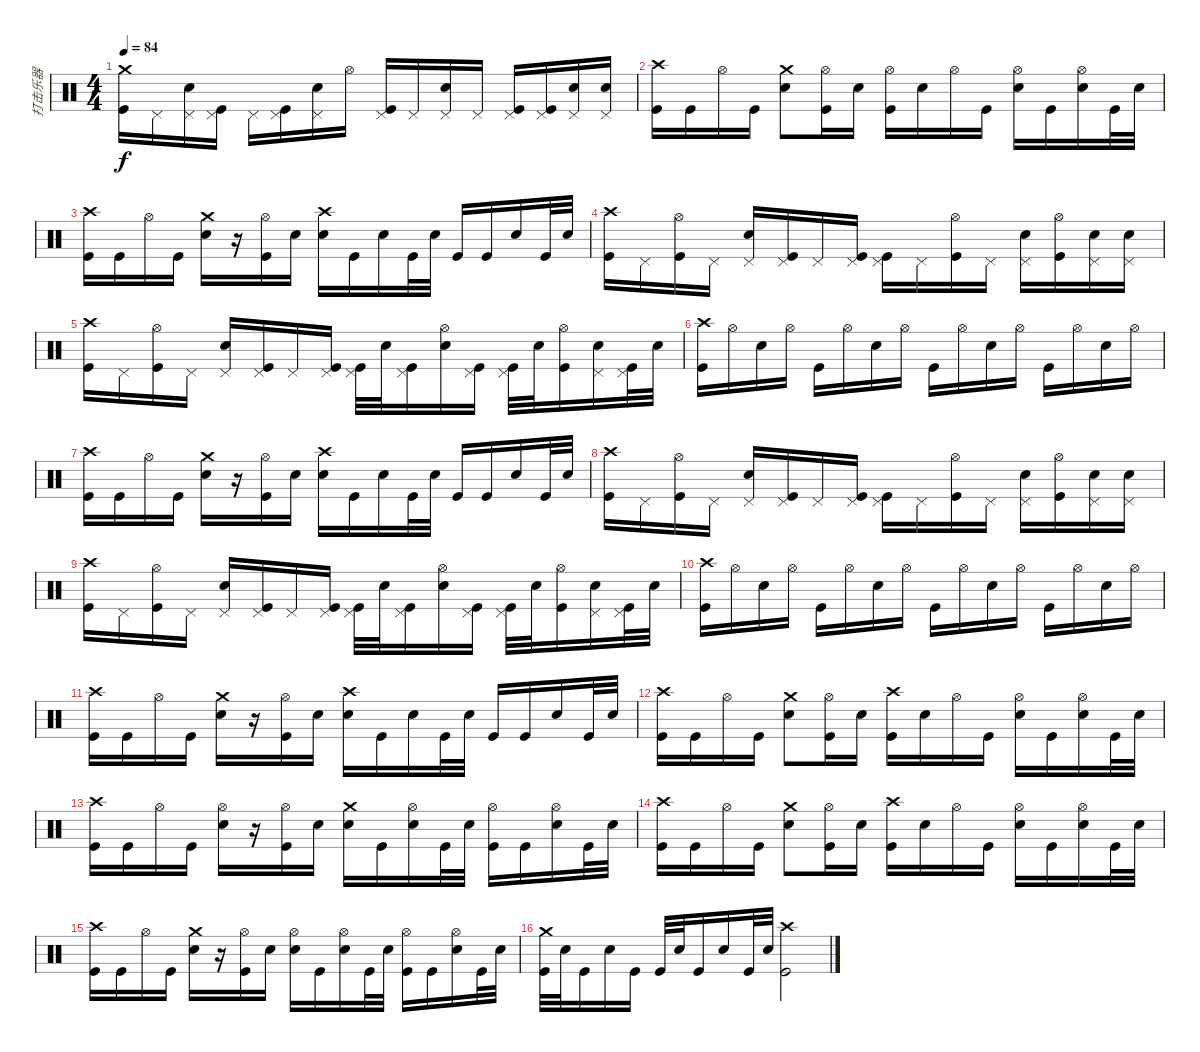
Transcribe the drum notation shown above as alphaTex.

\track ("打击乐器" "打击乐器") {instrument percussion}
\staff {score}
\articulation defaults
\ts (4 4)
\tempo 84
\clef neutral
\ks c
("Crash medium (hit)" "Kick (hit)").16{dy f} "Pedal Hi-Hat (hit)".16 ("Pedal Hi-Hat (hit)" "Electric Snare (hit)").16 ("Pedal Hi-Hat (hit)" "Kick (hit)").16 "Pedal Hi-Hat (hit)".16 ("Pedal Hi-Hat (hit)" "Kick (hit)").16 ("Pedal Hi-Hat (hit)" "Electric Snare (hit)").16 "Hi-Hat (open)".16 ("Pedal Hi-Hat (hit)" "Kick (hit)").16 "Pedal Hi-Hat (hit)".16 ("Pedal Hi-Hat (hit)" "Electric Snare (hit)").16 "Pedal Hi-Hat (hit)".16 ("Pedal Hi-Hat (hit)" "Kick (hit)").16 ("Pedal Hi-Hat (hit)" "Kick (hit)").16 ("Pedal Hi-Hat (hit)" "Electric Snare (hit)").16 ("Pedal Hi-Hat (hit)" "Electric Snare (hit)").16 |
("Crash high (hit)" "Kick (hit)").16 "Kick (hit)".16 "Hi-Hat (open)".16 "Kick (hit)".16 ("Crash medium (hit)" "Electric Snare (hit)").8 ("Hi-Hat (open)" "Kick (hit)").16 "Electric Snare (hit)".16 ("Hi-Hat (open)" "Kick (hit)").16 "Electric Snare (hit)".16 "Hi-Hat (open)".16 "Kick (hit)".16 ("Hi-Hat (open)" "Electric Snare (hit)").16 "Kick (hit)".16 ("Hi-Hat (open)" "Electric Snare (hit)").16 "Kick (hit)".32 "Electric Snare (hit)".32 |
("Crash high (hit)" "Kick (hit)").16 "Kick (hit)".16 "Hi-Hat (open)".16 "Kick (hit)".16 ("Crash medium (hit)" "Electric Snare (hit)").16 r.16 ("Hi-Hat (open)" "Kick (hit)").16 "Electric Snare (hit)".16 ("Crash high (hit)" "Electric Snare (hit)").16 "Kick (hit)".16 "Electric Snare (hit)".16 "Kick (hit)".32 "Electric Snare (hit)".32 "Kick (hit)".16 "Kick (hit)".16 "Electric Snare (hit)".16 "Kick (hit)".32 "Electric Snare (hit)".32 |
("Crash high (hit)" "Kick (hit)").16 "Pedal Hi-Hat (hit)".16 ("Hi-Hat (open)" "Kick (hit)").16 "Pedal Hi-Hat (hit)".16 ("Pedal Hi-Hat (hit)" "Electric Snare (hit)").16 ("Pedal Hi-Hat (hit)" "Kick (hit)").16 "Pedal Hi-Hat (hit)".16 ("Pedal Hi-Hat (hit)" "Kick (hit)").16 ("Pedal Hi-Hat (hit)" "Kick (hit)").16 "Pedal Hi-Hat (hit)".16 ("Hi-Hat (open)" "Kick (hit)").16 "Pedal Hi-Hat (hit)".16 ("Pedal Hi-Hat (hit)" "Electric Snare (hit)").16 ("Hi-Hat (open)" "Kick (hit)").16 ("Pedal Hi-Hat (hit)" "Electric Snare (hit)").16 ("Pedal Hi-Hat (hit)" "Electric Snare (hit)").16 |
("Crash high (hit)" "Kick (hit)").16 "Pedal Hi-Hat (hit)".16 ("Hi-Hat (open)" "Kick (hit)").16 "Pedal Hi-Hat (hit)".16 ("Pedal Hi-Hat (hit)" "Electric Snare (hit)").16 ("Pedal Hi-Hat (hit)" "Kick (hit)").16 "Pedal Hi-Hat (hit)".16 ("Pedal Hi-Hat (hit)" "Kick (hit)").16 ("Pedal Hi-Hat (hit)" "Kick (hit)").32 "Electric Snare (hit)".32 ("Pedal Hi-Hat (hit)" "Kick (hit)").16 ("Hi-Hat (open)" "Electric Snare (hit)").16 ("Pedal Hi-Hat (hit)" "Kick (hit)").16 ("Pedal Hi-Hat (hit)" "Kick (hit)").32 "Electric Snare (hit)".32 ("Hi-Hat (open)" "Kick (hit)").16 ("Pedal Hi-Hat (hit)" "Electric Snare (hit)").16 ("Pedal Hi-Hat (hit)" "Kick (hit)").32 "Electric Snare (hit)".32 |
("Crash high (hit)" "Kick (hit)").16 "Hi-Hat (open)".16 "Electric Snare (hit)".16 "Hi-Hat (open)".16 "Kick (hit)".16 "Hi-Hat (open)".16 "Electric Snare (hit)".16 "Hi-Hat (open)".16 "Kick (hit)".16 "Hi-Hat (open)".16 "Electric Snare (hit)".16 "Hi-Hat (open)".16 "Kick (hit)".16 "Hi-Hat (open)".16 "Electric Snare (hit)".16 "Hi-Hat (open)".16 |
("Crash high (hit)" "Kick (hit)").16 "Kick (hit)".16 "Hi-Hat (open)".16 "Kick (hit)".16 ("Crash medium (hit)" "Electric Snare (hit)").16 r.16 ("Hi-Hat (open)" "Kick (hit)").16 "Electric Snare (hit)".16 ("Crash high (hit)" "Electric Snare (hit)").16 "Kick (hit)".16 "Electric Snare (hit)".16 "Kick (hit)".32 "Electric Snare (hit)".32 "Kick (hit)".16 "Kick (hit)".16 "Electric Snare (hit)".16 "Kick (hit)".32 "Electric Snare (hit)".32 |
("Crash high (hit)" "Kick (hit)").16 "Pedal Hi-Hat (hit)".16 ("Hi-Hat (open)" "Kick (hit)").16 "Pedal Hi-Hat (hit)".16 ("Pedal Hi-Hat (hit)" "Electric Snare (hit)").16 ("Pedal Hi-Hat (hit)" "Kick (hit)").16 "Pedal Hi-Hat (hit)".16 ("Pedal Hi-Hat (hit)" "Kick (hit)").16 ("Pedal Hi-Hat (hit)" "Kick (hit)").16 "Pedal Hi-Hat (hit)".16 ("Hi-Hat (open)" "Kick (hit)").16 "Pedal Hi-Hat (hit)".16 ("Pedal Hi-Hat (hit)" "Electric Snare (hit)").16 ("Hi-Hat (open)" "Kick (hit)").16 ("Pedal Hi-Hat (hit)" "Electric Snare (hit)").16 ("Pedal Hi-Hat (hit)" "Electric Snare (hit)").16 |
("Crash high (hit)" "Kick (hit)").16 "Pedal Hi-Hat (hit)".16 ("Hi-Hat (open)" "Kick (hit)").16 "Pedal Hi-Hat (hit)".16 ("Pedal Hi-Hat (hit)" "Electric Snare (hit)").16 ("Pedal Hi-Hat (hit)" "Kick (hit)").16 "Pedal Hi-Hat (hit)".16 ("Pedal Hi-Hat (hit)" "Kick (hit)").16 ("Pedal Hi-Hat (hit)" "Kick (hit)").32 "Electric Snare (hit)".32 ("Pedal Hi-Hat (hit)" "Kick (hit)").16 ("Hi-Hat (open)" "Electric Snare (hit)").16 ("Pedal Hi-Hat (hit)" "Kick (hit)").16 ("Pedal Hi-Hat (hit)" "Kick (hit)").32 "Electric Snare (hit)".32 ("Hi-Hat (open)" "Kick (hit)").16 ("Pedal Hi-Hat (hit)" "Electric Snare (hit)").16 ("Pedal Hi-Hat (hit)" "Kick (hit)").32 "Electric Snare (hit)".32 |
("Crash high (hit)" "Kick (hit)").16 "Hi-Hat (open)".16 "Electric Snare (hit)".16 "Hi-Hat (open)".16 "Kick (hit)".16 "Hi-Hat (open)".16 "Electric Snare (hit)".16 "Hi-Hat (open)".16 "Kick (hit)".16 "Hi-Hat (open)".16 "Electric Snare (hit)".16 "Hi-Hat (open)".16 "Kick (hit)".16 "Hi-Hat (open)".16 "Electric Snare (hit)".16 "Hi-Hat (open)".16 |
("Crash high (hit)" "Kick (hit)").16 "Kick (hit)".16 "Hi-Hat (open)".16 "Kick (hit)".16 ("Crash medium (hit)" "Electric Snare (hit)").16 r.16 ("Hi-Hat (open)" "Kick (hit)").16 "Electric Snare (hit)".16 ("Crash high (hit)" "Electric Snare (hit)").16 "Kick (hit)".16 "Electric Snare (hit)".16 "Kick (hit)".32 "Electric Snare (hit)".32 "Kick (hit)".16 "Kick (hit)".16 "Electric Snare (hit)".16 "Kick (hit)".32 "Electric Snare (hit)".32 |
("Crash high (hit)" "Kick (hit)").16 "Kick (hit)".16 "Hi-Hat (open)".16 "Kick (hit)".16 ("Crash medium (hit)" "Electric Snare (hit)").8 ("Hi-Hat (open)" "Kick (hit)").16 "Electric Snare (hit)".16 ("Crash high (hit)" "Kick (hit)").16 "Electric Snare (hit)".16 "Hi-Hat (open)".16 "Kick (hit)".16 ("Hi-Hat (open)" "Electric Snare (hit)").16 "Kick (hit)".16 ("Hi-Hat (open)" "Electric Snare (hit)").16 "Kick (hit)".32 "Electric Snare (hit)".32 |
("Crash high (hit)" "Kick (hit)").16 "Kick (hit)".16 "Hi-Hat (open)".16 "Kick (hit)".16 ("Hi-Hat (open)" "Electric Snare (hit)").16 r.16 ("Hi-Hat (open)" "Kick (hit)").16 "Electric Snare (hit)".16 ("Crash medium (hit)" "Electric Snare (hit)").16 "Kick (hit)".16 ("Hi-Hat (open)" "Electric Snare (hit)").16 "Kick (hit)".32 "Electric Snare (hit)".32 ("Hi-Hat (open)" "Kick (hit)").16 "Kick (hit)".16 ("Hi-Hat (open)" "Electric Snare (hit)").16 "Kick (hit)".32 "Electric Snare (hit)".32 |
("Crash high (hit)" "Kick (hit)").16 "Kick (hit)".16 "Hi-Hat (open)".16 "Kick (hit)".16 ("Crash medium (hit)" "Electric Snare (hit)").8 ("Hi-Hat (open)" "Kick (hit)").16 "Electric Snare (hit)".16 ("Crash high (hit)" "Kick (hit)").16 "Electric Snare (hit)".16 "Hi-Hat (open)".16 "Kick (hit)".16 ("Hi-Hat (open)" "Electric Snare (hit)").16 "Kick (hit)".16 ("Hi-Hat (open)" "Electric Snare (hit)").16 "Kick (hit)".32 "Electric Snare (hit)".32 |
("Crash high (hit)" "Kick (hit)").16 "Kick (hit)".16 "Hi-Hat (open)".16 "Kick (hit)".16 ("Crash medium (hit)" "Electric Snare (hit)").16 r.16 ("Hi-Hat (open)" "Kick (hit)").16 "Electric Snare (hit)".16 ("Hi-Hat (open)" "Electric Snare (hit)").16 "Kick (hit)".16 ("Hi-Hat (open)" "Electric Snare (hit)").16 "Kick (hit)".32 "Electric Snare (hit)".32 ("Hi-Hat (open)" "Kick (hit)").16 "Kick (hit)".16 ("Hi-Hat (open)" "Electric Snare (hit)").16 "Kick (hit)".32 "Electric Snare (hit)".32 |
("Crash medium (hit)" "Kick (hit)").32 "Electric Snare (hit)".32 "Kick (hit)".16 "Electric Snare (hit)".16 "Kick (hit)".16 "Kick (hit)".32 "Electric Snare (hit)".32 "Kick (hit)".16 "Electric Snare (hit)".16 "Kick (hit)".32 "Electric Snare (hit)".32 ("Crash high (hit)" "Kick (hit)").2
